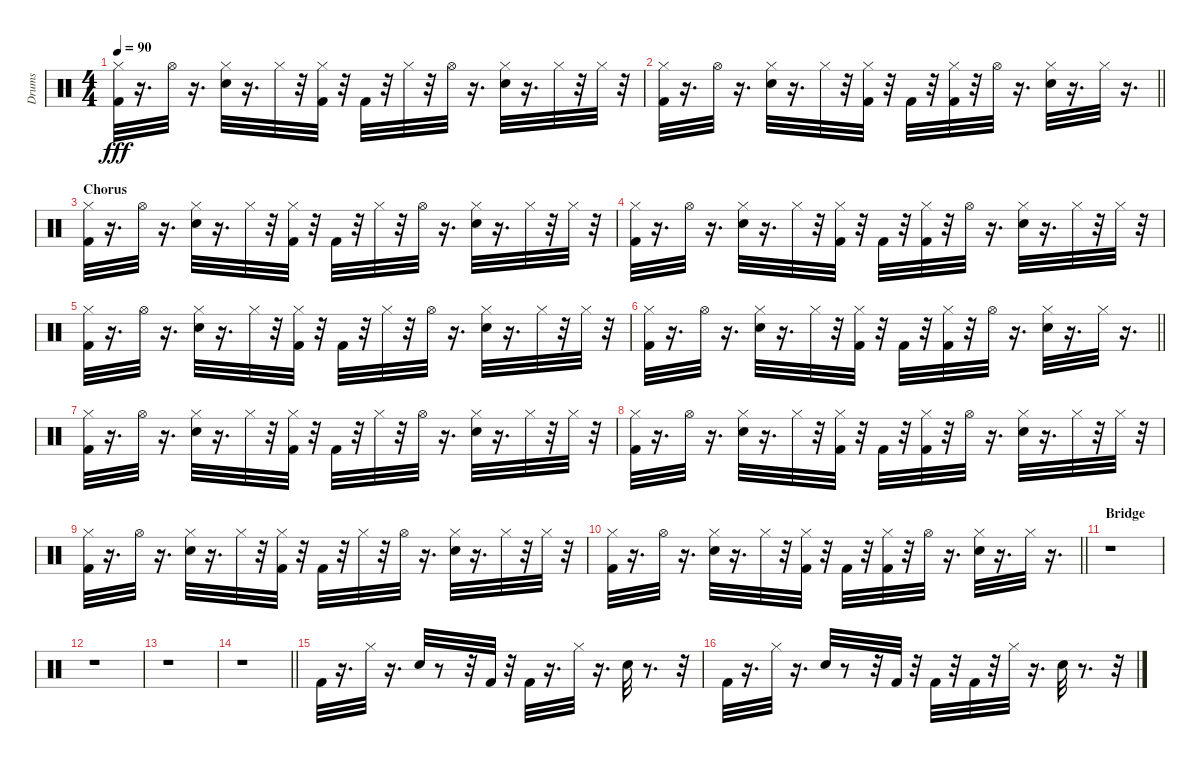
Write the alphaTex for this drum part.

\track ("Drums" "Drums") {instrument percussion}
\staff {score}
\articulation defaults
\ts (4 4)
\tempo 90
\clef neutral
\ks c
("Kick (hit) 2" "Hi-Hat (closed)").32{dy fff} r.16{d} "Hi-Hat (open)".32 r.16{d} ("Snare (hit) 2" "Hi-Hat (closed)").32 r.16{d} "Hi-Hat (closed)".32 r.32 ("Hi-Hat (closed)" "Kick (hit) 2").32 r.32 "Kick (hit) 2".32 r.32 "Hi-Hat (closed)".32 r.32 "Hi-Hat (open)".32 r.16{d} ("Hi-Hat (closed)" "Snare (hit) 2").32 r.16{d} "Hi-Hat (closed)".32 r.32 "Hi-Hat (closed)".32 r.32 |
\barLineRight lightlight
("Kick (hit) 2" "Hi-Hat (closed)").32 r.16{d} "Hi-Hat (open)".32 r.16{d} ("Snare (hit) 2" "Hi-Hat (closed)").32 r.16{d} "Hi-Hat (closed)".32 r.32 ("Kick (hit) 2" "Hi-Hat (closed)").32 r.32 "Kick (hit) 2".32 r.32 ("Hi-Hat (closed)" "Kick (hit) 2").32 r.32 "Hi-Hat (open)".32 r.16{d} ("Snare (hit) 2" "Hi-Hat (closed)").32 r.16{d} "Hi-Hat (closed)".32 r.16{d} |
\section ("" "Chorus")
("Hi-Hat (closed)" "Kick (hit) 2").32 r.16{d} "Hi-Hat (open)".32 r.16{d} ("Hi-Hat (closed)" "Snare (hit) 2").32 r.16{d} "Hi-Hat (closed)".32 r.32 ("Hi-Hat (closed)" "Kick (hit) 2").32 r.32 "Kick (hit) 2".32 r.32 "Hi-Hat (closed)".32 r.32 "Hi-Hat (open)".32 r.16{d} ("Snare (hit) 2" "Hi-Hat (closed)").32 r.16{d} "Hi-Hat (closed)".32 r.32 "Hi-Hat (closed)".32 r.32 |
("Kick (hit) 2" "Hi-Hat (closed)").32 r.16{d} "Hi-Hat (open)".32 r.16{d} ("Hi-Hat (closed)" "Snare (hit) 2").32 r.16{d} "Hi-Hat (closed)".32 r.32 ("Kick (hit) 2" "Hi-Hat (closed)").32 r.32 "Kick (hit) 2".32 r.32 ("Kick (hit) 2" "Hi-Hat (closed)").32 r.32 "Hi-Hat (open)".32 r.16{d} ("Snare (hit) 2" "Hi-Hat (closed)").32 r.16{d} "Hi-Hat (closed)".32 r.32 "Hi-Hat (closed)".32 r.32 |
("Kick (hit) 2" "Hi-Hat (closed)").32 r.16{d} "Hi-Hat (open)".32 r.16{d} ("Hi-Hat (closed)" "Snare (hit) 2").32 r.16{d} "Hi-Hat (closed)".32 r.32 ("Kick (hit) 2" "Hi-Hat (closed)").32 r.32 "Kick (hit) 2".32 r.32 "Hi-Hat (closed)".32 r.32 "Hi-Hat (open)".32 r.16{d} ("Hi-Hat (closed)" "Snare (hit) 2").32 r.16{d} "Hi-Hat (closed)".32 r.32 "Hi-Hat (closed)".32 r.32 |
\barLineRight lightlight
("Hi-Hat (closed)" "Kick (hit) 2").32 r.16{d} "Hi-Hat (open)".32 r.16{d} ("Snare (hit) 2" "Hi-Hat (closed)").32 r.16{d} "Hi-Hat (closed)".32 r.32 ("Kick (hit) 2" "Hi-Hat (closed)").32 r.32 "Kick (hit) 2".32 r.32 ("Hi-Hat (closed)" "Kick (hit) 2").32 r.32 "Hi-Hat (open)".32 r.16{d} ("Snare (hit) 2" "Hi-Hat (closed)").32 r.16{d} "Hi-Hat (closed)".32 r.16{d} |
("Hi-Hat (closed)" "Kick (hit) 2").32 r.16{d} "Hi-Hat (open)".32 r.16{d} ("Hi-Hat (closed)" "Snare (hit) 2").32 r.16{d} "Hi-Hat (closed)".32 r.32 ("Hi-Hat (closed)" "Kick (hit) 2").32 r.32 "Kick (hit) 2".32 r.32 "Hi-Hat (closed)".32 r.32 "Hi-Hat (open)".32 r.16{d} ("Hi-Hat (closed)" "Snare (hit) 2").32 r.16{d} "Hi-Hat (closed)".32 r.32 "Hi-Hat (closed)".32 r.32 |
("Kick (hit) 2" "Hi-Hat (closed)").32 r.16{d} "Hi-Hat (open)".32 r.16{d} ("Hi-Hat (closed)" "Snare (hit) 2").32 r.16{d} "Hi-Hat (closed)".32 r.32 ("Hi-Hat (closed)" "Kick (hit) 2").32 r.32 "Kick (hit) 2".32 r.32 ("Kick (hit) 2" "Hi-Hat (closed)").32 r.32 "Hi-Hat (open)".32 r.16{d} ("Snare (hit) 2" "Hi-Hat (closed)").32 r.16{d} "Hi-Hat (closed)".32 r.32 "Hi-Hat (closed)".32 r.32 |
("Kick (hit) 2" "Hi-Hat (closed)").32 r.16{d} "Hi-Hat (open)".32 r.16{d} ("Snare (hit) 2" "Hi-Hat (closed)").32 r.16{d} "Hi-Hat (closed)".32 r.32 ("Hi-Hat (closed)" "Kick (hit) 2").32 r.32 "Kick (hit) 2".32 r.32 "Hi-Hat (closed)".32 r.32 "Hi-Hat (open)".32 r.16{d} ("Hi-Hat (closed)" "Snare (hit) 2").32 r.16{d} "Hi-Hat (closed)".32 r.32 "Hi-Hat (closed)".32 r.32 |
\barLineRight lightlight
("Hi-Hat (closed)" "Kick (hit) 2").32 r.16{d} "Hi-Hat (open)".32 r.16{d} ("Hi-Hat (closed)" "Snare (hit) 2").32 r.16{d} "Hi-Hat (closed)".32 r.32 ("Hi-Hat (closed)" "Kick (hit) 2").32 r.32 "Kick (hit) 2".32 r.32 ("Kick (hit) 2" "Hi-Hat (closed)").32 r.32 "Hi-Hat (open)".32 r.16{d} ("Hi-Hat (closed)" "Snare (hit) 2").32 r.16{d} "Hi-Hat (closed)".32 r.16{d} |
\section ("" "Bridge")
r.1 |
r.1 |
r.1 |
\barLineRight lightlight
r.1 |
"Kick (hit) 2".32 r.16{d} "Hi-Hat (closed)".32 r.16{d} "Snare (hit) 2".32 r.8 r.32 "Kick (hit) 2".32 r.32 "Kick (hit) 2".32 r.16{d} "Hi-Hat (closed)".32 r.16{d} "Snare (hit) 2".32 r.8{d} r.32 |
"Kick (hit) 2".32 r.16{d} "Hi-Hat (closed)".32 r.16{d} "Snare (hit) 2".32 r.8 r.32 "Kick (hit) 2".32 r.32 "Kick (hit) 2".32 r.32 "Kick (hit) 2".32 r.32 "Hi-Hat (closed)".32 r.16{d} "Snare (hit) 2".32 r.8{d} r.32
